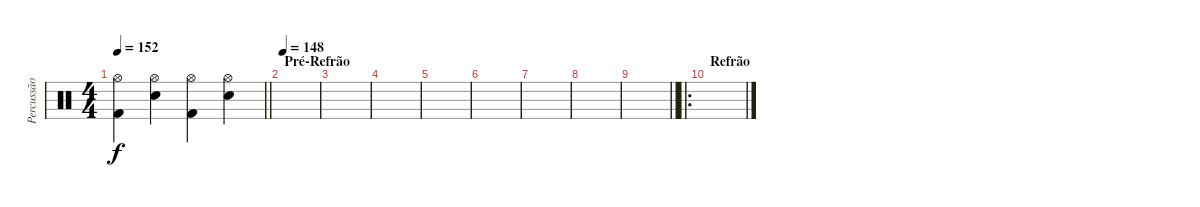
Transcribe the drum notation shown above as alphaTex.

\track ("Percussão" "Percussão") {instrument percussion}
\staff {score}
\articulation defaults
\ts (4 4)
\tempo 152
\clef neutral
\barLineRight lightlight
\ks c
("Hi-Hat (open)" "Kick (hit) 2").4{dy f} ("Hi-Hat (open)" "Electric Snare (hit)").4 ("Hi-Hat (open)" "Kick (hit) 2").4 ("Hi-Hat (open)" "Electric Snare (hit)").4 |
\section ("" "Pré-Refrão")
\tempo 148
|
|
|
|
|
|
|
\barLineRight lightlight
|
\ro
\section ("" "Refrão")
